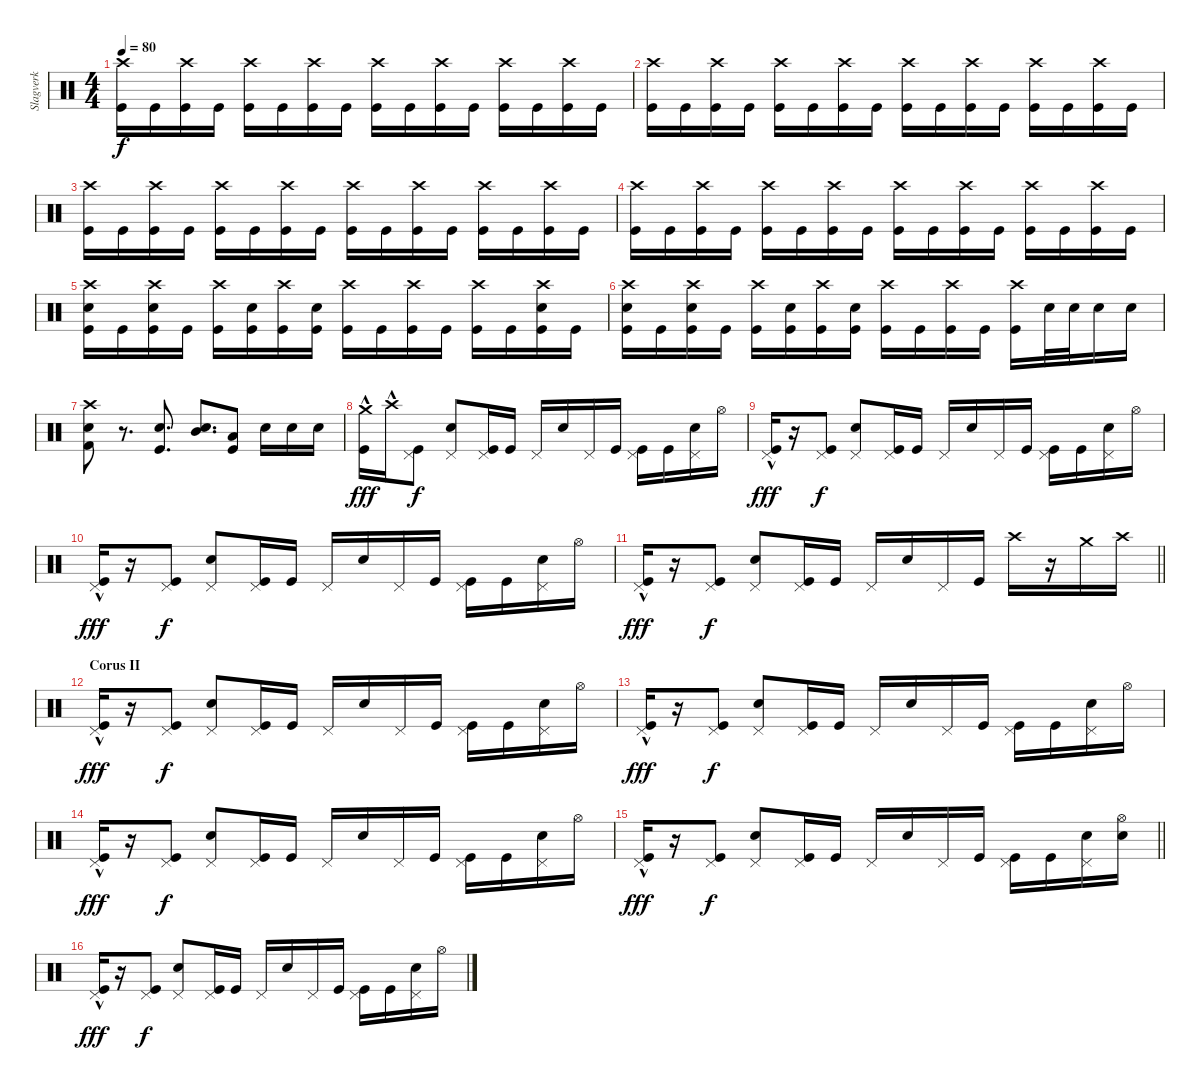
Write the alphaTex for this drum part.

\track ("Slagverk" "Slagverk") {instrument percussion}
\staff {score}
\articulation defaults
\ts (4 4)
\tempo 80
\clef neutral
\ks c
("Crash high (hit)" "Kick (hit)").16{dy f} "Kick (hit)".16 ("Crash high (hit)" "Kick (hit)").16 "Kick (hit)".16 ("Crash high (hit)" "Kick (hit)").16 "Kick (hit)".16 ("Crash high (hit)" "Kick (hit)").16 "Kick (hit)".16 ("Crash high (hit)" "Kick (hit)").16 "Kick (hit)".16 ("Crash high (hit)" "Kick (hit)").16 "Kick (hit)".16 ("Crash high (hit)" "Kick (hit)").16 "Kick (hit)".16 ("Crash high (hit)" "Kick (hit)").16 "Kick (hit)".16 |
("Crash high (hit)" "Kick (hit)").16 "Kick (hit)".16 ("Crash high (hit)" "Kick (hit)").16 "Kick (hit)".16 ("Crash high (hit)" "Kick (hit)").16 "Kick (hit)".16 ("Crash high (hit)" "Kick (hit)").16 "Kick (hit)".16 ("Crash high (hit)" "Kick (hit)").16 "Kick (hit)".16 ("Crash high (hit)" "Kick (hit)").16 "Kick (hit)".16 ("Crash high (hit)" "Kick (hit)").16 "Kick (hit)".16 ("Crash high (hit)" "Kick (hit)").16 "Kick (hit)".16 |
("Crash high (hit)" "Kick (hit)").16 "Kick (hit)".16 ("Crash high (hit)" "Kick (hit)").16 "Kick (hit)".16 ("Crash high (hit)" "Kick (hit)").16 "Kick (hit)".16 ("Crash high (hit)" "Kick (hit)").16 "Kick (hit)".16 ("Crash high (hit)" "Kick (hit)").16 "Kick (hit)".16 ("Crash high (hit)" "Kick (hit)").16 "Kick (hit)".16 ("Crash high (hit)" "Kick (hit)").16 "Kick (hit)".16 ("Crash high (hit)" "Kick (hit)").16 "Kick (hit)".16 |
("Crash high (hit)" "Kick (hit)").16 "Kick (hit)".16 ("Crash high (hit)" "Kick (hit)").16 "Kick (hit)".16 ("Crash high (hit)" "Kick (hit)").16 "Kick (hit)".16 ("Crash high (hit)" "Kick (hit)").16 "Kick (hit)".16 ("Crash high (hit)" "Kick (hit)").16 "Kick (hit)".16 ("Crash high (hit)" "Kick (hit)").16 "Kick (hit)".16 ("Crash high (hit)" "Kick (hit)").16 "Kick (hit)".16 ("Crash high (hit)" "Kick (hit)").16 "Kick (hit)".16 |
("Crash high (hit)" "Snare (hit) 2" "Kick (hit)").16 "Kick (hit)".16 ("Crash high (hit)" "Snare (hit) 2" "Kick (hit)").16 "Kick (hit)".16 ("Crash high (hit)" "Kick (hit)").16 ("Snare (hit) 2" "Kick (hit)").16 ("Crash high (hit)" "Kick (hit)").16 ("Snare (hit) 2" "Kick (hit)").16 ("Crash high (hit)" "Kick (hit)").16 "Kick (hit)".16 ("Crash high (hit)" "Kick (hit)").16 "Kick (hit)".16 ("Crash high (hit)" "Kick (hit)").16 "Kick (hit)".16 ("Crash high (hit)" "Snare (hit) 2" "Kick (hit)").16 "Kick (hit)".16 |
("Crash high (hit)" "Snare (hit) 2" "Kick (hit)").16 "Kick (hit)".16 ("Crash high (hit)" "Snare (hit) 2" "Kick (hit)").16 "Kick (hit)".16 ("Crash high (hit)" "Kick (hit)").16 ("Snare (hit) 2" "Kick (hit)").16 ("Crash high (hit)" "Kick (hit)").16 ("Snare (hit) 2" "Kick (hit)").16 ("Crash high (hit)" "Kick (hit)").16 "Kick (hit)".16 ("Crash high (hit)" "Kick (hit)").16 "Kick (hit)".16 ("Crash high (hit)" "Kick (hit)").16 "Snare (hit) 2".32 "Snare (hit) 2".32 "Snare (hit) 2".16 "Snare (hit) 2".16 |
("Crash high (hit)" "Snare (hit) 2" "Kick (hit) 2").8 r.8{d} ("Kick (hit)" "Snare (hit) 2").8{d} ("Mid Tom (hit)" "Snare (hit) 2").8{d} ("Low Tom (hit)" "Kick (hit)").8 "Snare (hit) 2".16 "Snare (hit) 2".16 "Snare (hit) 2".16 |
("Crash medium (hit)"{hac} "Kick (hit)").16{dy fff} "Crash high (hit)"{hac}.16 ("Pedal Hi-Hat (hit)" "Kick (hit)").8{dy f} ("Pedal Hi-Hat (hit)" "Snare (hit) 2").8 ("Pedal Hi-Hat (hit)" "Kick (hit)").16 "Kick (hit)".16 "Pedal Hi-Hat (hit)".16 "Snare (hit) 2".16 "Pedal Hi-Hat (hit)".16 "Kick (hit)".16 ("Pedal Hi-Hat (hit)" "Kick (hit)").16 "Kick (hit)".16 ("Pedal Hi-Hat (hit)" "Snare (hit) 2").16 "Hi-Hat (open)".16 |
("Pedal Hi-Hat (hit)"{hac} "Kick (hit)").16{dy fff} r.16 ("Pedal Hi-Hat (hit)" "Kick (hit)").8{dy f} ("Pedal Hi-Hat (hit)" "Snare (hit) 2").8 ("Pedal Hi-Hat (hit)" "Kick (hit)").16 "Kick (hit)".16 "Pedal Hi-Hat (hit)".16 "Snare (hit) 2".16 "Pedal Hi-Hat (hit)".16 "Kick (hit)".16 ("Pedal Hi-Hat (hit)" "Kick (hit)").16 "Kick (hit)".16 ("Pedal Hi-Hat (hit)" "Snare (hit) 2").16 "Hi-Hat (open)".16 |
("Pedal Hi-Hat (hit)"{hac} "Kick (hit)").16{dy fff} r.16 ("Pedal Hi-Hat (hit)" "Kick (hit)").8{dy f} ("Pedal Hi-Hat (hit)" "Snare (hit) 2").8 ("Pedal Hi-Hat (hit)" "Kick (hit)").16 "Kick (hit)".16 "Pedal Hi-Hat (hit)".16 "Snare (hit) 2".16 "Pedal Hi-Hat (hit)".16 "Kick (hit)".16 ("Pedal Hi-Hat (hit)" "Kick (hit)").16 "Kick (hit)".16 ("Pedal Hi-Hat (hit)" "Snare (hit) 2").16 "Hi-Hat (open)".16 |
\barLineRight lightlight
("Pedal Hi-Hat (hit)"{hac} "Kick (hit)").16{dy fff} r.16 ("Pedal Hi-Hat (hit)" "Kick (hit)").8{dy f} ("Pedal Hi-Hat (hit)" "Snare (hit) 2").8 ("Pedal Hi-Hat (hit)" "Kick (hit)").16 "Kick (hit)".16 "Pedal Hi-Hat (hit)".16 "Snare (hit) 2".16 "Pedal Hi-Hat (hit)".16 "Kick (hit)".16 "Crash high (hit)".16 r.16 "Crash medium (hit)".16 "Crash high (hit)".16 |
\section ("" "Corus II")
("Pedal Hi-Hat (hit)"{hac} "Kick (hit)").16{dy fff} r.16 ("Pedal Hi-Hat (hit)" "Kick (hit)").8{dy f} ("Pedal Hi-Hat (hit)" "Snare (hit) 2").8 ("Pedal Hi-Hat (hit)" "Kick (hit)").16 "Kick (hit)".16 "Pedal Hi-Hat (hit)".16 "Snare (hit) 2".16 "Pedal Hi-Hat (hit)".16 "Kick (hit)".16 ("Pedal Hi-Hat (hit)" "Kick (hit)").16 "Kick (hit)".16 ("Pedal Hi-Hat (hit)" "Snare (hit) 2").16 "Hi-Hat (open)".16 |
("Pedal Hi-Hat (hit)"{hac} "Kick (hit)").16{dy fff} r.16 ("Pedal Hi-Hat (hit)" "Kick (hit)").8{dy f} ("Pedal Hi-Hat (hit)" "Snare (hit) 2").8 ("Pedal Hi-Hat (hit)" "Kick (hit)").16 "Kick (hit)".16 "Pedal Hi-Hat (hit)".16 "Snare (hit) 2".16 "Pedal Hi-Hat (hit)".16 "Kick (hit)".16 ("Pedal Hi-Hat (hit)" "Kick (hit)").16 "Kick (hit)".16 ("Pedal Hi-Hat (hit)" "Snare (hit) 2").16 "Hi-Hat (open)".16 |
("Pedal Hi-Hat (hit)"{hac} "Kick (hit)").16{dy fff} r.16 ("Pedal Hi-Hat (hit)" "Kick (hit)").8{dy f} ("Pedal Hi-Hat (hit)" "Snare (hit) 2").8 ("Pedal Hi-Hat (hit)" "Kick (hit)").16 "Kick (hit)".16 "Pedal Hi-Hat (hit)".16 "Snare (hit) 2".16 "Pedal Hi-Hat (hit)".16 "Kick (hit)".16 ("Pedal Hi-Hat (hit)" "Kick (hit)").16 "Kick (hit)".16 ("Pedal Hi-Hat (hit)" "Snare (hit) 2").16 "Hi-Hat (open)".16 |
\barLineRight lightlight
("Pedal Hi-Hat (hit)"{hac} "Kick (hit)").16{dy fff} r.16 ("Pedal Hi-Hat (hit)" "Kick (hit)").8{dy f} ("Pedal Hi-Hat (hit)" "Snare (hit) 2").8 ("Pedal Hi-Hat (hit)" "Kick (hit)").16 "Kick (hit)".16 "Pedal Hi-Hat (hit)".16 "Snare (hit) 2".16 "Pedal Hi-Hat (hit)".16 "Kick (hit)".16 ("Pedal Hi-Hat (hit)" "Kick (hit)").16 "Kick (hit)".16 ("Pedal Hi-Hat (hit)" "Snare (hit) 2").16 ("Hi-Hat (open)" "Snare (hit) 2").16 |
("Pedal Hi-Hat (hit)"{hac} "Kick (hit)").16{dy fff} r.16 ("Pedal Hi-Hat (hit)" "Kick (hit)").8{dy f} ("Pedal Hi-Hat (hit)" "Snare (hit) 2").8 ("Pedal Hi-Hat (hit)" "Kick (hit)").16 "Kick (hit)".16 "Pedal Hi-Hat (hit)".16 "Snare (hit) 2".16 "Pedal Hi-Hat (hit)".16 "Kick (hit)".16 ("Pedal Hi-Hat (hit)" "Kick (hit)").16 "Kick (hit)".16 ("Pedal Hi-Hat (hit)" "Snare (hit) 2").16 "Hi-Hat (open)".16
